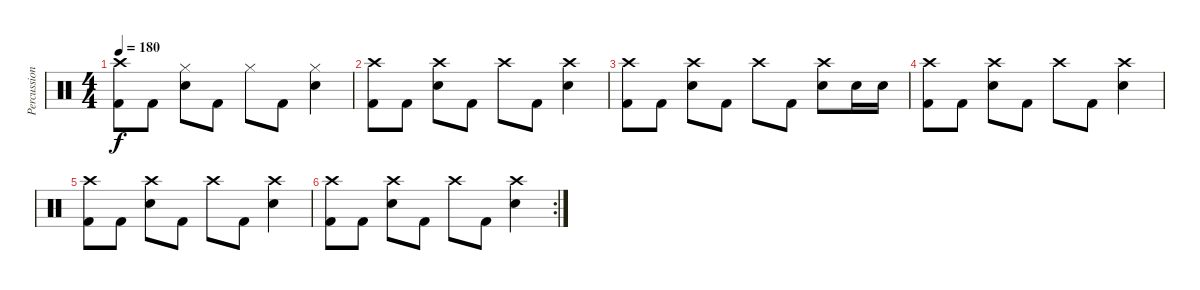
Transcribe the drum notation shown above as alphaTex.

\track ("Percussions" "Percussion") {instrument percussion}
\staff {score}
\articulation defaults
\ts (4 4)
\tempo 180
\clef neutral
\ks c
("Crash high (hit)" "Kick (hit) 2").8{dy f} "Kick (hit) 2".8 ("Hi-Hat (closed)" "Snare (hit) 2").8 "Kick (hit) 2".8 "Hi-Hat (closed)".8 "Kick (hit) 2".8 ("Hi-Hat (closed)" "Snare (hit) 2").4 |
("Crash high (hit)" "Kick (hit) 2").8 "Kick (hit) 2".8 ("Crash high (hit)" "Snare (hit) 2").8 "Kick (hit) 2".8 "Crash high (hit)".8 "Kick (hit) 2".8 ("Crash high (hit)" "Snare (hit) 2").4 |
("Crash high (hit)" "Kick (hit) 2").8 "Kick (hit) 2".8 ("Crash high (hit)" "Snare (hit) 2").8 "Kick (hit) 2".8 "Crash high (hit)".8 "Kick (hit) 2".8 ("Crash high (hit)" "Snare (hit) 2").8 "Snare (hit) 2".16 "Snare (hit) 2".16 |
("Crash high (hit)" "Kick (hit) 2").8 "Kick (hit) 2".8 ("Crash high (hit)" "Snare (hit) 2").8 "Kick (hit) 2".8 "Crash high (hit)".8 "Kick (hit) 2".8 ("Crash high (hit)" "Snare (hit) 2").4 |
("Crash high (hit)" "Kick (hit) 2").8 "Kick (hit) 2".8 ("Crash high (hit)" "Snare (hit) 2").8 "Kick (hit) 2".8 "Crash high (hit)".8 "Kick (hit) 2".8 ("Crash high (hit)" "Snare (hit) 2").4 |
\rc 2
("Crash high (hit)" "Kick (hit) 2").8 "Kick (hit) 2".8 ("Crash high (hit)" "Snare (hit) 2").8 "Kick (hit) 2".8 "Crash high (hit)".8 "Kick (hit) 2".8 ("Crash high (hit)" "Snare (hit) 2").4
